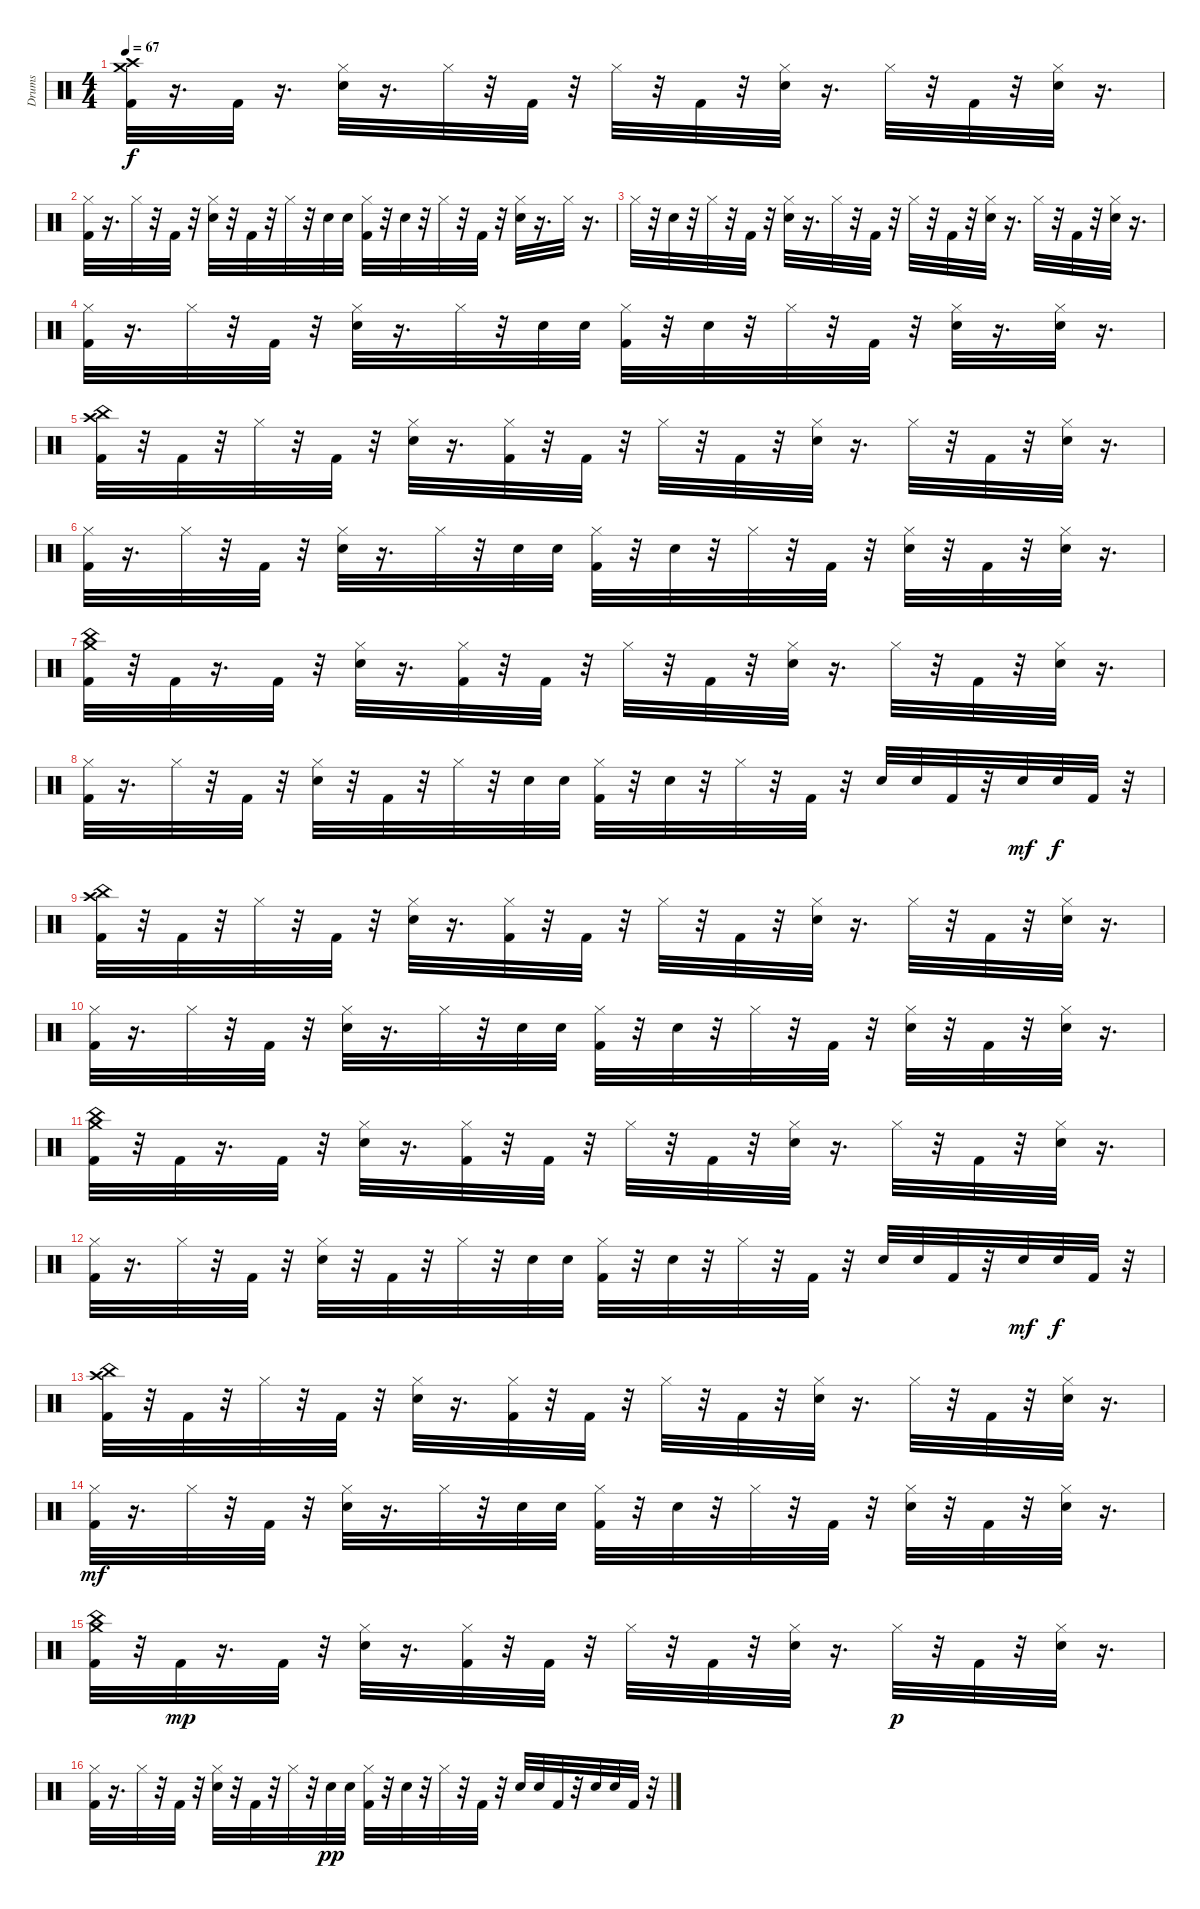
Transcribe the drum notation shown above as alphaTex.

\track ("Drums" "Drums") {instrument percussion}
\staff {score}
\articulation defaults
\ts (4 4)
\tempo 67
\clef neutral
\ks c
("Crash high (hit)" "Kick (hit) 2" "Crash medium (hit)").32{dy f} r.16{d} "Kick (hit) 2".32 r.16{d} ("Snare (hit) 2" "Hi-Hat (closed)").32 r.16{d} "Hi-Hat (closed)".32 r.32 "Kick (hit) 2".32 r.32 "Hi-Hat (closed)".32 r.32 "Kick (hit) 2".32 r.32 ("Snare (hit) 2" "Hi-Hat (closed)").32 r.16{d} "Hi-Hat (closed)".32 r.32 "Kick (hit) 2".32 r.32 ("Snare (hit) 2" "Hi-Hat (closed)").32 r.16{d} |
("Kick (hit) 2" "Hi-Hat (closed)").32 r.16{d} "Hi-Hat (closed)".32 r.32 "Kick (hit) 2".32 r.32 ("Snare (hit) 2" "Hi-Hat (closed)").32 r.32 "Kick (hit) 2".32 r.32 "Hi-Hat (closed)".32 r.32 "Snare (hit) 2".32 "Snare (hit) 2".32 ("Kick (hit) 2" "Hi-Hat (closed)").32 r.32 "Snare (hit) 2".32 r.32 "Hi-Hat (closed)".32 r.32 "Kick (hit) 2".32 r.32 ("Snare (hit) 2" "Hi-Hat (closed)").32 r.16{d} "Hi-Hat (closed)".32 r.16{d} |
"Hi-Hat (closed)".32 r.32 "Snare (hit) 2".32 r.32 "Hi-Hat (closed)".32 r.32 "Kick (hit) 2".32 r.32 ("Snare (hit) 2" "Hi-Hat (closed)").32 r.16{d} "Hi-Hat (closed)".32 r.32 "Kick (hit) 2".32 r.32 "Hi-Hat (closed)".32 r.32 "Kick (hit) 2".32 r.32 ("Snare (hit) 2" "Hi-Hat (closed)").32 r.16{d} "Hi-Hat (closed)".32 r.32 "Kick (hit) 2".32 r.32 ("Snare (hit) 2" "Hi-Hat (closed)").32 r.16{d} |
("Kick (hit) 2" "Hi-Hat (closed)").32 r.16{d} "Hi-Hat (closed)".32 r.32 "Kick (hit) 2".32 r.32 ("Snare (hit) 2" "Hi-Hat (closed)").32 r.16{d} "Hi-Hat (closed)".32 r.32 "Snare (hit) 2".32 "Snare (hit) 2".32 ("Kick (hit) 2" "Hi-Hat (closed)").32 r.32 "Snare (hit) 2".32 r.32 "Hi-Hat (closed)".32 r.32 "Kick (hit) 2".32 r.32 ("Snare (hit) 2" "Hi-Hat (closed)").32 r.16{d} ("Snare (hit) 2" "Hi-Hat (closed)").32 r.16{d} |
("China (hit)" "Crash high (hit)" "Kick (hit) 2").32 r.32 "Kick (hit) 2".32 r.32 "Hi-Hat (closed)".32 r.32 "Kick (hit) 2".32 r.32 ("Snare (hit) 2" "Hi-Hat (closed)").32 r.16{d} ("Kick (hit) 2" "Hi-Hat (closed)").32 r.32 "Kick (hit) 2".32 r.32 "Hi-Hat (closed)".32 r.32 "Kick (hit) 2".32 r.32 ("Snare (hit) 2" "Hi-Hat (closed)").32 r.16{d} "Hi-Hat (closed)".32 r.32 "Kick (hit) 2".32 r.32 ("Snare (hit) 2" "Hi-Hat (closed)").32 r.16{d} |
("Kick (hit) 2" "Hi-Hat (closed)").32 r.16{d} "Hi-Hat (closed)".32 r.32 "Kick (hit) 2".32 r.32 ("Snare (hit) 2" "Hi-Hat (closed)").32 r.16{d} "Hi-Hat (closed)".32 r.32 "Snare (hit) 2".32 "Snare (hit) 2".32 ("Kick (hit) 2" "Hi-Hat (closed)").32 r.32 "Snare (hit) 2".32 r.32 "Hi-Hat (closed)".32 r.32 "Kick (hit) 2".32 r.32 ("Snare (hit) 2" "Hi-Hat (closed)").32 r.32 "Kick (hit) 2".32 r.32 ("Snare (hit) 2" "Hi-Hat (closed)").32 r.16{d} |
("China (hit)" "Crash medium (hit)" "Kick (hit) 2").32 r.32 "Kick (hit) 2".32 r.16{d} "Kick (hit) 2".32 r.32 ("Snare (hit) 2" "Hi-Hat (closed)").32 r.16{d} ("Kick (hit) 2" "Hi-Hat (closed)").32 r.32 "Kick (hit) 2".32 r.32 "Hi-Hat (closed)".32 r.32 "Kick (hit) 2".32 r.32 ("Snare (hit) 2" "Hi-Hat (closed)").32 r.16{d} "Hi-Hat (closed)".32 r.32 "Kick (hit) 2".32 r.32 ("Snare (hit) 2" "Hi-Hat (closed)").32 r.16{d} |
("Kick (hit) 2" "Hi-Hat (closed)").32 r.16{d} "Hi-Hat (closed)".32 r.32 "Kick (hit) 2".32 r.32 ("Snare (hit) 2" "Hi-Hat (closed)").32 r.32 "Kick (hit) 2".32 r.32 "Hi-Hat (closed)".32 r.32 "Snare (hit) 2".32 "Snare (hit) 2".32 ("Kick (hit) 2" "Hi-Hat (closed)").32 r.32 "Snare (hit) 2".32 r.32 "Hi-Hat (closed)".32 r.32 "Kick (hit) 2".32 r.32 "Electric Snare (hit)".32 "Snare (hit) 2".32 "Kick (hit) 2".32 r.32 "Electric Snare (hit)".32{dy mf} "Snare (hit) 2".32{dy f} "Kick (hit) 2".32 r.32 |
("China (hit)" "Crash high (hit)" "Kick (hit) 2").32 r.32 "Kick (hit) 2".32 r.32 "Hi-Hat (closed)".32 r.32 "Kick (hit) 2".32 r.32 ("Snare (hit) 2" "Hi-Hat (closed)").32 r.16{d} ("Kick (hit) 2" "Hi-Hat (closed)").32 r.32 "Kick (hit) 2".32 r.32 "Hi-Hat (closed)".32 r.32 "Kick (hit) 2".32 r.32 ("Snare (hit) 2" "Hi-Hat (closed)").32 r.16{d} "Hi-Hat (closed)".32 r.32 "Kick (hit) 2".32 r.32 ("Snare (hit) 2" "Hi-Hat (closed)").32 r.16{d} |
("Kick (hit) 2" "Hi-Hat (closed)").32 r.16{d} "Hi-Hat (closed)".32 r.32 "Kick (hit) 2".32 r.32 ("Snare (hit) 2" "Hi-Hat (closed)").32 r.16{d} "Hi-Hat (closed)".32 r.32 "Snare (hit) 2".32 "Snare (hit) 2".32 ("Kick (hit) 2" "Hi-Hat (closed)").32 r.32 "Snare (hit) 2".32 r.32 "Hi-Hat (closed)".32 r.32 "Kick (hit) 2".32 r.32 ("Snare (hit) 2" "Hi-Hat (closed)").32 r.32 "Kick (hit) 2".32 r.32 ("Snare (hit) 2" "Hi-Hat (closed)").32 r.16{d} |
("China (hit)" "Crash medium (hit)" "Kick (hit) 2").32 r.32 "Kick (hit) 2".32 r.16{d} "Kick (hit) 2".32 r.32 ("Snare (hit) 2" "Hi-Hat (closed)").32 r.16{d} ("Kick (hit) 2" "Hi-Hat (closed)").32 r.32 "Kick (hit) 2".32 r.32 "Hi-Hat (closed)".32 r.32 "Kick (hit) 2".32 r.32 ("Snare (hit) 2" "Hi-Hat (closed)").32 r.16{d} "Hi-Hat (closed)".32 r.32 "Kick (hit) 2".32 r.32 ("Snare (hit) 2" "Hi-Hat (closed)").32 r.16{d} |
("Kick (hit) 2" "Hi-Hat (closed)").32 r.16{d} "Hi-Hat (closed)".32 r.32 "Kick (hit) 2".32 r.32 ("Snare (hit) 2" "Hi-Hat (closed)").32 r.32 "Kick (hit) 2".32 r.32 "Hi-Hat (closed)".32 r.32 "Snare (hit) 2".32 "Snare (hit) 2".32 ("Kick (hit) 2" "Hi-Hat (closed)").32 r.32 "Snare (hit) 2".32 r.32 "Hi-Hat (closed)".32 r.32 "Kick (hit) 2".32 r.32 "Electric Snare (hit)".32 "Snare (hit) 2".32 "Kick (hit) 2".32 r.32 "Electric Snare (hit)".32{dy mf} "Snare (hit) 2".32{dy f} "Kick (hit) 2".32 r.32 |
("China (hit)" "Crash high (hit)" "Kick (hit) 2").32 r.32 "Kick (hit) 2".32 r.32 "Hi-Hat (closed)".32 r.32 "Kick (hit) 2".32 r.32 ("Snare (hit) 2" "Hi-Hat (closed)").32 r.16{d} ("Kick (hit) 2" "Hi-Hat (closed)").32 r.32 "Kick (hit) 2".32 r.32 "Hi-Hat (closed)".32 r.32 "Kick (hit) 2".32 r.32 ("Snare (hit) 2" "Hi-Hat (closed)").32 r.16{d} "Hi-Hat (closed)".32 r.32 "Kick (hit) 2".32 r.32 ("Snare (hit) 2" "Hi-Hat (closed)").32 r.16{d} |
("Kick (hit) 2" "Hi-Hat (closed)").32{dy mf} r.16{d} "Hi-Hat (closed)".32 r.32 "Kick (hit) 2".32 r.32 ("Snare (hit) 2" "Hi-Hat (closed)").32 r.16{d} "Hi-Hat (closed)".32 r.32 "Snare (hit) 2".32 "Snare (hit) 2".32 ("Kick (hit) 2" "Hi-Hat (closed)").32 r.32 "Snare (hit) 2".32 r.32 "Hi-Hat (closed)".32 r.32 "Kick (hit) 2".32 r.32 ("Snare (hit) 2" "Hi-Hat (closed)").32 r.32 "Kick (hit) 2".32 r.32 ("Snare (hit) 2" "Hi-Hat (closed)").32 r.16{d} |
("China (hit)" "Crash medium (hit)" "Kick (hit) 2").32 r.32 "Kick (hit) 2".32{dy mp} r.16{d} "Kick (hit) 2".32 r.32 ("Snare (hit) 2" "Hi-Hat (closed)").32 r.16{d} ("Kick (hit) 2" "Hi-Hat (closed)").32 r.32 "Kick (hit) 2".32 r.32 "Hi-Hat (closed)".32 r.32 "Kick (hit) 2".32 r.32 ("Snare (hit) 2" "Hi-Hat (closed)").32 r.16{d} "Hi-Hat (closed)".32{dy p} r.32 "Kick (hit) 2".32 r.32 ("Snare (hit) 2" "Hi-Hat (closed)").32 r.16{d} |
("Kick (hit) 2" "Hi-Hat (closed)").32 r.16{d} "Hi-Hat (closed)".32 r.32 "Kick (hit) 2".32 r.32 ("Snare (hit) 2" "Hi-Hat (closed)").32 r.32 "Kick (hit) 2".32 r.32 "Hi-Hat (closed)".32 r.32 "Snare (hit) 2".32{dy pp} "Snare (hit) 2".32 ("Kick (hit) 2" "Hi-Hat (closed)").32 r.32 "Snare (hit) 2".32 r.32 "Hi-Hat (closed)".32 r.32 "Kick (hit) 2".32 r.32 "Electric Snare (hit)".32 "Snare (hit) 2".32 "Kick (hit) 2".32 r.32 "Electric Snare (hit)".32 "Snare (hit) 2".32 "Kick (hit) 2".32 r.32
